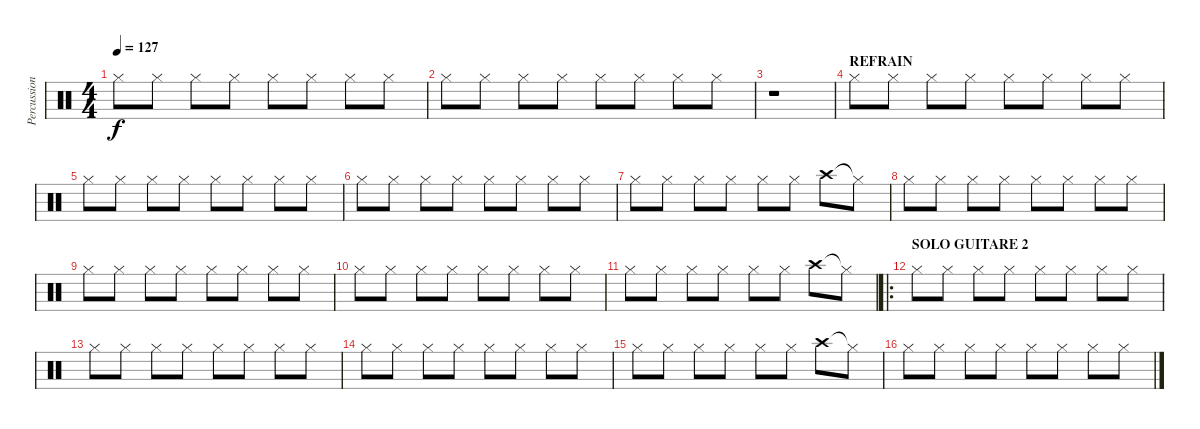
\track ("Percussions" "Percussion") {instrument percussion}
\staff {score}
\articulation defaults
\ts (4 4)
\tempo 127
\clef neutral
\ks c "Hi-Hat (closed)".8{dy f} "Hi-Hat (closed)".8 "Hi-Hat (closed)".8 "Hi-Hat (closed)".8 "Hi-Hat (closed)".8 "Hi-Hat (closed)".8 "Hi-Hat (closed)".8 "Hi-Hat (closed)".8
|
"Hi-Hat (closed)".8 "Hi-Hat (closed)".8 "Hi-Hat (closed)".8 "Hi-Hat (closed)".8 "Hi-Hat (closed)".8 "Hi-Hat (closed)".8 "Hi-Hat (closed)".8 "Hi-Hat (closed)".8 |
r.1 |
\section ("" "REFRAIN")
"Hi-Hat (closed)".8 "Hi-Hat (closed)".8 "Hi-Hat (closed)".8 "Hi-Hat (closed)".8 "Hi-Hat (closed)".8 "Hi-Hat (closed)".8 "Hi-Hat (closed)".8 "Hi-Hat (closed)".8 |
"Hi-Hat (closed)".8 "Hi-Hat (closed)".8 "Hi-Hat (closed)".8 "Hi-Hat (closed)".8 "Hi-Hat (closed)".8 "Hi-Hat (closed)".8 "Hi-Hat (closed)".8 "Hi-Hat (closed)".8 |
"Hi-Hat (closed)".8 "Hi-Hat (closed)".8 "Hi-Hat (closed)".8 "Hi-Hat (closed)".8 "Hi-Hat (closed)".8 "Hi-Hat (closed)".8 "Hi-Hat (closed)".8 "Hi-Hat (closed)".8 |
"Hi-Hat (closed)".8 "Hi-Hat (closed)".8 "Hi-Hat (closed)".8 "Hi-Hat (closed)".8 "Hi-Hat (closed)".8 "Hi-Hat (closed)".8 "Crash high (hit)".8 "Hi-Hat (closed)"{t}.8 |
"Hi-Hat (closed)".8 "Hi-Hat (closed)".8 "Hi-Hat (closed)".8 "Hi-Hat (closed)".8 "Hi-Hat (closed)".8 "Hi-Hat (closed)".8 "Hi-Hat (closed)".8 "Hi-Hat (closed)".8 |
"Hi-Hat (closed)".8 "Hi-Hat (closed)".8 "Hi-Hat (closed)".8 "Hi-Hat (closed)".8 "Hi-Hat (closed)".8 "Hi-Hat (closed)".8 "Hi-Hat (closed)".8 "Hi-Hat (closed)".8 |
"Hi-Hat (closed)".8 "Hi-Hat (closed)".8 "Hi-Hat (closed)".8 "Hi-Hat (closed)".8 "Hi-Hat (closed)".8 "Hi-Hat (closed)".8 "Hi-Hat (closed)".8 "Hi-Hat (closed)".8 |
"Hi-Hat (closed)".8 "Hi-Hat (closed)".8 "Hi-Hat (closed)".8 "Hi-Hat (closed)".8 "Hi-Hat (closed)".8 "Hi-Hat (closed)".8 "Crash high (hit)".8 "Hi-Hat (closed)"{t}.8 |
\ro
\section ("" "SOLO GUITARE 2")
"Hi-Hat (closed)".8 "Hi-Hat (closed)".8 "Hi-Hat (closed)".8 "Hi-Hat (closed)".8 "Hi-Hat (closed)".8 "Hi-Hat (closed)".8 "Hi-Hat (closed)".8 "Hi-Hat (closed)".8 |
"Hi-Hat (closed)".8 "Hi-Hat (closed)".8 "Hi-Hat (closed)".8 "Hi-Hat (closed)".8 "Hi-Hat (closed)".8 "Hi-Hat (closed)".8 "Hi-Hat (closed)".8 "Hi-Hat (closed)".8 |
"Hi-Hat (closed)".8 "Hi-Hat (closed)".8 "Hi-Hat (closed)".8 "Hi-Hat (closed)".8 "Hi-Hat (closed)".8 "Hi-Hat (closed)".8 "Hi-Hat (closed)".8 "Hi-Hat (closed)".8 |
"Hi-Hat (closed)".8 "Hi-Hat (closed)".8 "Hi-Hat (closed)".8 "Hi-Hat (closed)".8 "Hi-Hat (closed)".8 "Hi-Hat (closed)".8 "Crash high (hit)".8 "Hi-Hat (closed)"{t}.8 |
"Hi-Hat (closed)".8 "Hi-Hat (closed)".8 "Hi-Hat (closed)".8 "Hi-Hat (closed)".8 "Hi-Hat (closed)".8 "Hi-Hat (closed)".8 "Hi-Hat (closed)".8 "Hi-Hat (closed)".8
